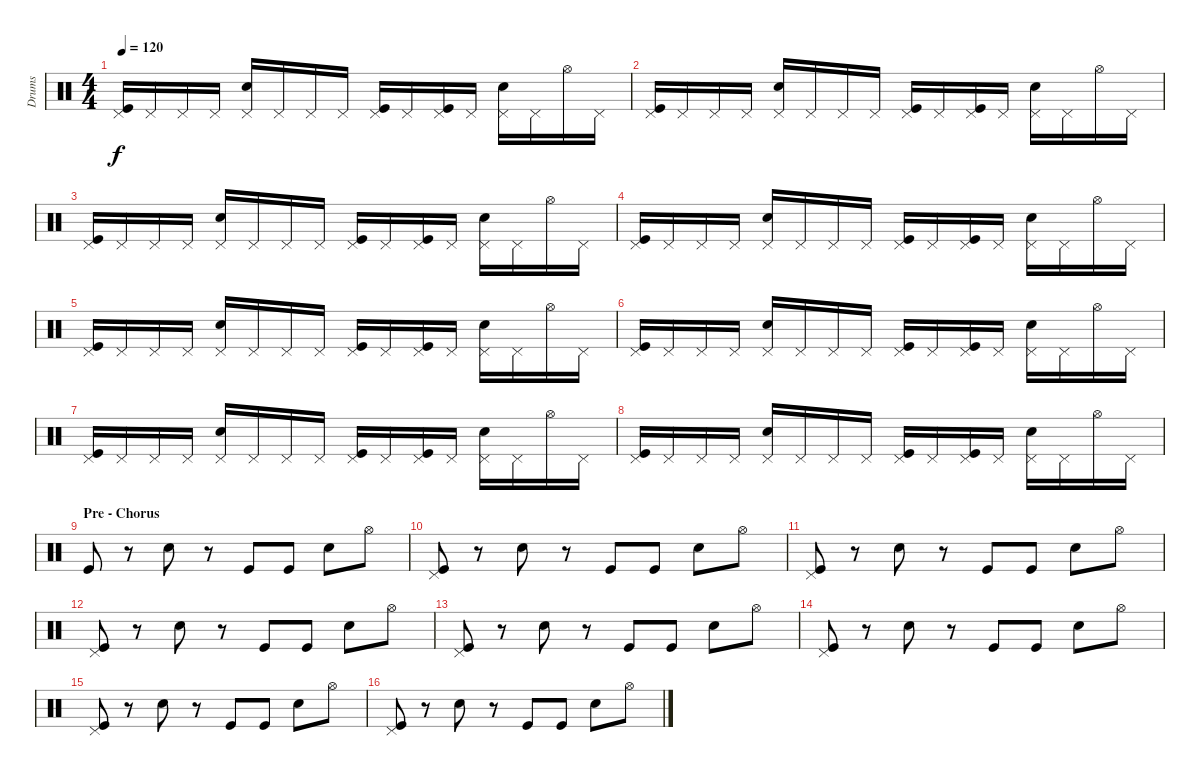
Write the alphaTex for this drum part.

\track ("Drums" "Drums") {instrument percussion}
\staff {score}
\articulation defaults
\ts (4 4)
\tempo 120
\clef neutral
\ks c
("Kick (hit)" "Pedal Hi-Hat (hit)").16{dy f} "Pedal Hi-Hat (hit)".16 "Pedal Hi-Hat (hit)".16 "Pedal Hi-Hat (hit)".16 ("Snare (hit) 2" "Pedal Hi-Hat (hit)").16 "Pedal Hi-Hat (hit)".16 "Pedal Hi-Hat (hit)".16 "Pedal Hi-Hat (hit)".16 ("Kick (hit)" "Pedal Hi-Hat (hit)").16 "Pedal Hi-Hat (hit)".16 ("Kick (hit)" "Pedal Hi-Hat (hit)").16 "Pedal Hi-Hat (hit)".16 ("Snare (hit) 2" "Pedal Hi-Hat (hit)").16 "Pedal Hi-Hat (hit)".16 "Hi-Hat (open)".16 "Pedal Hi-Hat (hit)".16 |
("Kick (hit)" "Pedal Hi-Hat (hit)").16 "Pedal Hi-Hat (hit)".16 "Pedal Hi-Hat (hit)".16 "Pedal Hi-Hat (hit)".16 ("Snare (hit) 2" "Pedal Hi-Hat (hit)").16 "Pedal Hi-Hat (hit)".16 "Pedal Hi-Hat (hit)".16 "Pedal Hi-Hat (hit)".16 ("Kick (hit)" "Pedal Hi-Hat (hit)").16 "Pedal Hi-Hat (hit)".16 ("Kick (hit)" "Pedal Hi-Hat (hit)").16 "Pedal Hi-Hat (hit)".16 ("Snare (hit) 2" "Pedal Hi-Hat (hit)").16 "Pedal Hi-Hat (hit)".16 "Hi-Hat (open)".16 "Pedal Hi-Hat (hit)".16 |
("Kick (hit)" "Pedal Hi-Hat (hit)").16 "Pedal Hi-Hat (hit)".16 "Pedal Hi-Hat (hit)".16 "Pedal Hi-Hat (hit)".16 ("Snare (hit) 2" "Pedal Hi-Hat (hit)").16 "Pedal Hi-Hat (hit)".16 "Pedal Hi-Hat (hit)".16 "Pedal Hi-Hat (hit)".16 ("Kick (hit)" "Pedal Hi-Hat (hit)").16 "Pedal Hi-Hat (hit)".16 ("Kick (hit)" "Pedal Hi-Hat (hit)").16 "Pedal Hi-Hat (hit)".16 ("Snare (hit) 2" "Pedal Hi-Hat (hit)").16 "Pedal Hi-Hat (hit)".16 "Hi-Hat (open)".16 "Pedal Hi-Hat (hit)".16 |
("Kick (hit)" "Pedal Hi-Hat (hit)").16 "Pedal Hi-Hat (hit)".16 "Pedal Hi-Hat (hit)".16 "Pedal Hi-Hat (hit)".16 ("Snare (hit) 2" "Pedal Hi-Hat (hit)").16 "Pedal Hi-Hat (hit)".16 "Pedal Hi-Hat (hit)".16 "Pedal Hi-Hat (hit)".16 ("Kick (hit)" "Pedal Hi-Hat (hit)").16 "Pedal Hi-Hat (hit)".16 ("Kick (hit)" "Pedal Hi-Hat (hit)").16 "Pedal Hi-Hat (hit)".16 ("Snare (hit) 2" "Pedal Hi-Hat (hit)").16 "Pedal Hi-Hat (hit)".16 "Hi-Hat (open)".16 "Pedal Hi-Hat (hit)".16 |
("Kick (hit)" "Pedal Hi-Hat (hit)").16 "Pedal Hi-Hat (hit)".16 "Pedal Hi-Hat (hit)".16 "Pedal Hi-Hat (hit)".16 ("Snare (hit) 2" "Pedal Hi-Hat (hit)").16 "Pedal Hi-Hat (hit)".16 "Pedal Hi-Hat (hit)".16 "Pedal Hi-Hat (hit)".16 ("Kick (hit)" "Pedal Hi-Hat (hit)").16 "Pedal Hi-Hat (hit)".16 ("Kick (hit)" "Pedal Hi-Hat (hit)").16 "Pedal Hi-Hat (hit)".16 ("Snare (hit) 2" "Pedal Hi-Hat (hit)").16 "Pedal Hi-Hat (hit)".16 "Hi-Hat (open)".16 "Pedal Hi-Hat (hit)".16 |
("Kick (hit)" "Pedal Hi-Hat (hit)").16 "Pedal Hi-Hat (hit)".16 "Pedal Hi-Hat (hit)".16 "Pedal Hi-Hat (hit)".16 ("Snare (hit) 2" "Pedal Hi-Hat (hit)").16 "Pedal Hi-Hat (hit)".16 "Pedal Hi-Hat (hit)".16 "Pedal Hi-Hat (hit)".16 ("Kick (hit)" "Pedal Hi-Hat (hit)").16 "Pedal Hi-Hat (hit)".16 ("Kick (hit)" "Pedal Hi-Hat (hit)").16 "Pedal Hi-Hat (hit)".16 ("Snare (hit) 2" "Pedal Hi-Hat (hit)").16 "Pedal Hi-Hat (hit)".16 "Hi-Hat (open)".16 "Pedal Hi-Hat (hit)".16 |
("Kick (hit)" "Pedal Hi-Hat (hit)").16 "Pedal Hi-Hat (hit)".16 "Pedal Hi-Hat (hit)".16 "Pedal Hi-Hat (hit)".16 ("Snare (hit) 2" "Pedal Hi-Hat (hit)").16 "Pedal Hi-Hat (hit)".16 "Pedal Hi-Hat (hit)".16 "Pedal Hi-Hat (hit)".16 ("Kick (hit)" "Pedal Hi-Hat (hit)").16 "Pedal Hi-Hat (hit)".16 ("Kick (hit)" "Pedal Hi-Hat (hit)").16 "Pedal Hi-Hat (hit)".16 ("Snare (hit) 2" "Pedal Hi-Hat (hit)").16 "Pedal Hi-Hat (hit)".16 "Hi-Hat (open)".16 "Pedal Hi-Hat (hit)".16 |
("Kick (hit)" "Pedal Hi-Hat (hit)").16 "Pedal Hi-Hat (hit)".16 "Pedal Hi-Hat (hit)".16 "Pedal Hi-Hat (hit)".16 ("Snare (hit) 2" "Pedal Hi-Hat (hit)").16 "Pedal Hi-Hat (hit)".16 "Pedal Hi-Hat (hit)".16 "Pedal Hi-Hat (hit)".16 ("Kick (hit)" "Pedal Hi-Hat (hit)").16 "Pedal Hi-Hat (hit)".16 ("Kick (hit)" "Pedal Hi-Hat (hit)").16 "Pedal Hi-Hat (hit)".16 ("Snare (hit) 2" "Pedal Hi-Hat (hit)").16 "Pedal Hi-Hat (hit)".16 "Hi-Hat (open)".16 "Pedal Hi-Hat (hit)".16 |
\section ("" "Pre - Chorus")
"Kick (hit)".8 r.8 "Snare (hit) 2".8 r.8 "Kick (hit)".8 "Kick (hit)".8 "Snare (hit) 2".8 "Hi-Hat (open)".8 |
("Kick (hit)" "Pedal Hi-Hat (hit)").8 r.8 "Snare (hit) 2".8 r.8 "Kick (hit)".8 "Kick (hit)".8 "Snare (hit) 2".8 "Hi-Hat (open)".8 |
("Kick (hit)" "Pedal Hi-Hat (hit)").8 r.8 "Snare (hit) 2".8 r.8 "Kick (hit)".8 "Kick (hit)".8 "Snare (hit) 2".8 "Hi-Hat (open)".8 |
("Kick (hit)" "Pedal Hi-Hat (hit)").8 r.8 "Snare (hit) 2".8 r.8 "Kick (hit)".8 "Kick (hit)".8 "Snare (hit) 2".8 "Hi-Hat (open)".8 |
("Kick (hit)" "Pedal Hi-Hat (hit)").8 r.8 "Snare (hit) 2".8 r.8 "Kick (hit)".8 "Kick (hit)".8 "Snare (hit) 2".8 "Hi-Hat (open)".8 |
("Kick (hit)" "Pedal Hi-Hat (hit)").8 r.8 "Snare (hit) 2".8 r.8 "Kick (hit)".8 "Kick (hit)".8 "Snare (hit) 2".8 "Hi-Hat (open)".8 |
("Kick (hit)" "Pedal Hi-Hat (hit)").8 r.8 "Snare (hit) 2".8 r.8 "Kick (hit)".8 "Kick (hit)".8 "Snare (hit) 2".8 "Hi-Hat (open)".8 |
("Kick (hit)" "Pedal Hi-Hat (hit)").8 r.8 "Snare (hit) 2".8 r.8 "Kick (hit)".8 "Kick (hit)".8 "Snare (hit) 2".8 "Hi-Hat (open)".8
